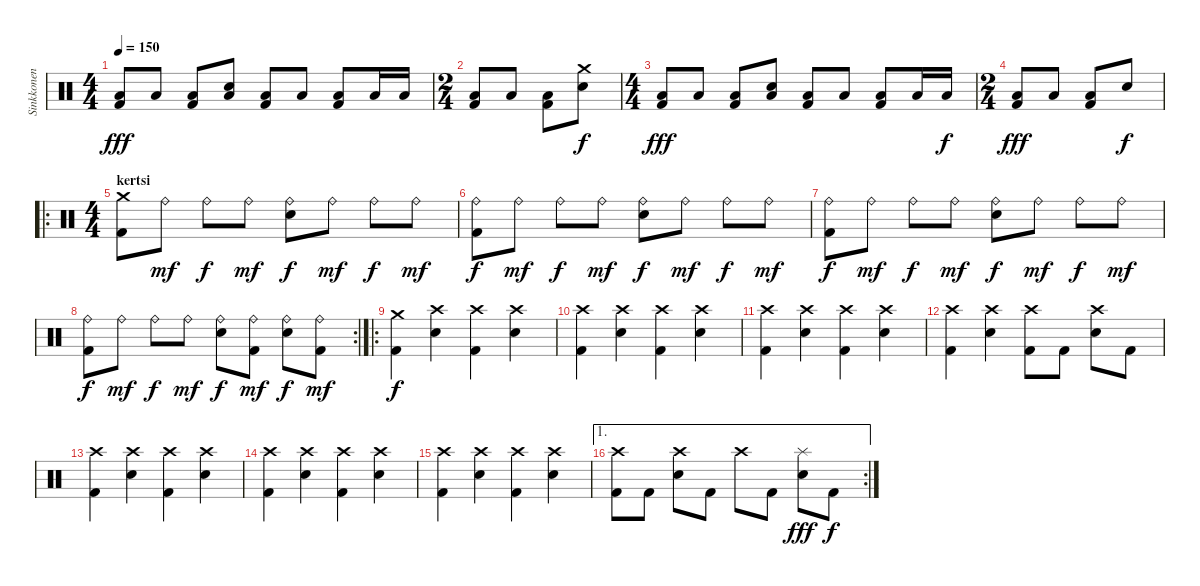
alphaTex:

\track ("Sinkkonen" "Sinkkonen") {instrument percussion}
\staff {score}
\articulation defaults
\ts (4 4)
\tempo 150
\clef neutral
\ks c
("Kick (hit) 2" "Low Floor Tom (hit)").8{dy fff} "Low Floor Tom (hit)".8 ("Kick (hit) 2" "Low Floor Tom (hit)").8 ("Low Floor Tom (hit)" "Snare (hit) 2").8 ("Kick (hit) 2" "Low Floor Tom (hit)").8 "Low Floor Tom (hit)".8 ("Kick (hit) 2" "Low Floor Tom (hit)").8 "Low Floor Tom (hit)".16 "Low Floor Tom (hit)".16 |
\ts (2 4)
("Kick (hit) 2" "Low Floor Tom (hit)").8 "Low Floor Tom (hit)".8 ("Kick (hit) 2" "Low Floor Tom (hit)").8 ("Crash medium (hit)" "Snare (hit) 2").8{dy f} |
\ts (4 4)
("Kick (hit) 2" "Low Floor Tom (hit)").8{dy fff} "Low Floor Tom (hit)".8 ("Kick (hit) 2" "Low Floor Tom (hit)").8 ("Low Floor Tom (hit)" "Snare (hit) 2").8 ("Kick (hit) 2" "Low Floor Tom (hit)").8 "Low Floor Tom (hit)".8 ("Kick (hit) 2" "Low Floor Tom (hit)").8 "Low Floor Tom (hit)".16 "Low Floor Tom (hit)".16{dy f} |
\ts (2 4)
("Kick (hit) 2" "Low Floor Tom (hit)").8{dy fff} "Low Floor Tom (hit)".8 ("Kick (hit) 2" "Low Floor Tom (hit)").8 "Snare (hit) 2".8{dy f} |
\ro
\ts (4 4)
\section ("" "kertsi")
("Kick (hit) 2" "Crash medium (hit)").8 "Ride (bell)".8{dy mf} "Ride (bell)".8{dy f} "Ride (bell)".8{dy mf} ("Ride (bell)" "Snare (hit) 2").8{dy f} "Ride (bell)".8{dy mf} "Ride (bell)".8{dy f} "Ride (bell)".8{dy mf} |
("Kick (hit) 2" "Ride (bell)").8{dy f} "Ride (bell)".8{dy mf} "Ride (bell)".8{dy f} "Ride (bell)".8{dy mf} ("Ride (bell)" "Snare (hit) 2").8{dy f} "Ride (bell)".8{dy mf} "Ride (bell)".8{dy f} "Ride (bell)".8{dy mf} |
("Kick (hit) 2" "Ride (bell)").8{dy f} "Ride (bell)".8{dy mf} "Ride (bell)".8{dy f} "Ride (bell)".8{dy mf} ("Ride (bell)" "Snare (hit) 2").8{dy f} "Ride (bell)".8{dy mf} "Ride (bell)".8{dy f} "Ride (bell)".8{dy mf} |
\rc 2
("Kick (hit) 2" "Ride (bell)").8{dy f} "Ride (bell)".8{dy mf} "Ride (bell)".8{dy f} "Ride (bell)".8{dy mf} ("Ride (bell)" "Snare (hit) 2").8{dy f} ("Kick (hit) 2" "Ride (bell)").8{dy mf} ("Ride (bell)" "Snare (hit) 2").8{dy f} ("Kick (hit) 2" "Ride (bell)").8{dy mf} |
\ro
("Kick (hit) 2" "Crash medium (hit)").4{dy f} ("Crash high (hit)" "Snare (hit) 2").4 ("Kick (hit) 2" "Crash high (hit)").4 ("Crash high (hit)" "Snare (hit) 2").4 |
("Kick (hit) 2" "Crash high (hit)").4 ("Crash high (hit)" "Snare (hit) 2").4 ("Kick (hit) 2" "Crash high (hit)").4 ("Crash high (hit)" "Snare (hit) 2").4 |
("Kick (hit) 2" "Crash high (hit)").4 ("Crash high (hit)" "Snare (hit) 2").4 ("Kick (hit) 2" "Crash high (hit)").4 ("Crash high (hit)" "Snare (hit) 2").4 |
("Kick (hit) 2" "Crash high (hit)").4 ("Crash high (hit)" "Snare (hit) 2").4 ("Kick (hit) 2" "Crash high (hit)").8 "Kick (hit) 2".8 ("Crash high (hit)" "Snare (hit) 2").8 "Kick (hit) 2".8 |
("Kick (hit) 2" "Crash high (hit)").4 ("Crash high (hit)" "Snare (hit) 2").4 ("Kick (hit) 2" "Crash high (hit)").4 ("Crash high (hit)" "Snare (hit) 2").4 |
("Kick (hit) 2" "Crash high (hit)").4 ("Crash high (hit)" "Snare (hit) 2").4 ("Kick (hit) 2" "Crash high (hit)").4 ("Crash high (hit)" "Snare (hit) 2").4 |
("Kick (hit) 2" "Crash high (hit)").4 ("Crash high (hit)" "Snare (hit) 2").4 ("Kick (hit) 2" "Crash high (hit)").4 ("Crash high (hit)" "Snare (hit) 2").4 |
\ae 1
\rc 2
("Kick (hit) 2" "Crash high (hit)").8 "Kick (hit) 2".8 ("Crash high (hit)" "Snare (hit) 2").8 "Kick (hit) 2".8 "Crash high (hit)".8 "Kick (hit) 2".8 ("Splash (hit)" "Snare (hit) 2").8{dy fff} "Kick (hit) 2".8{dy f}
